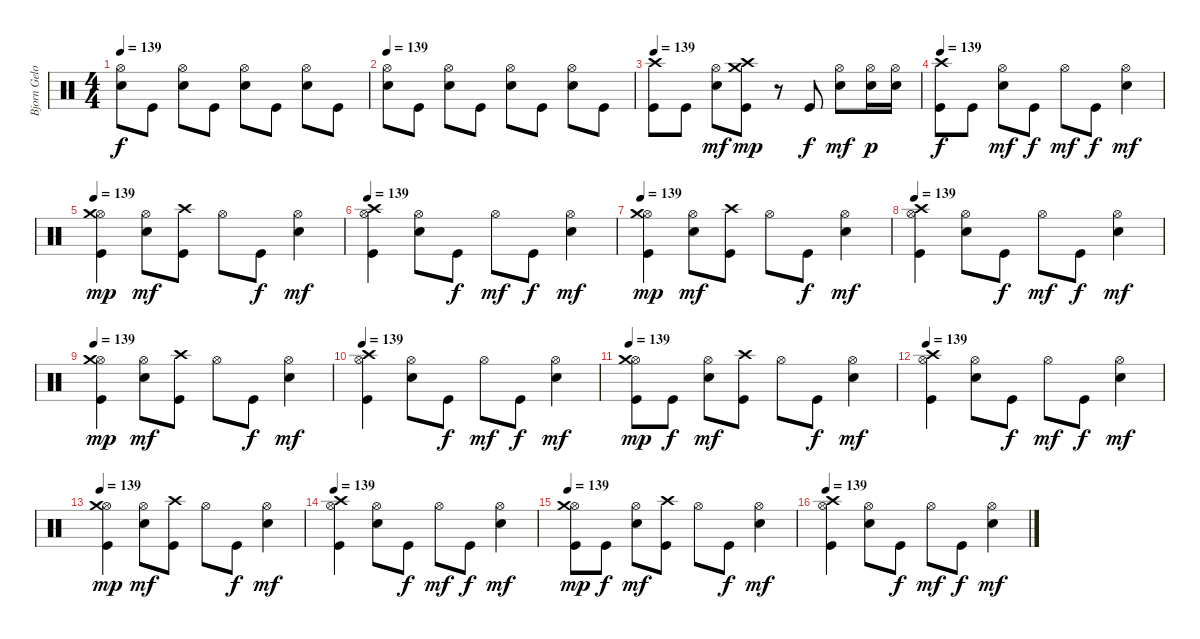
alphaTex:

\track ("Bjorn Gelotte-Drum" "Bjorn Gelo") {instrument percussion}
\staff {score}
\articulation defaults
\ts (4 4)
\tempo 139
\clef neutral
\ks c
("Electric Snare (hit)" "Hi-Hat (open)").8{dy f} "Kick (hit)".8 ("Electric Snare (hit)" "Hi-Hat (open)").8 "Kick (hit)".8 ("Electric Snare (hit)" "Hi-Hat (open)").8 "Kick (hit)".8 ("Electric Snare (hit)" "Hi-Hat (open)").8 "Kick (hit)".8 |
\tempo 139
("Electric Snare (hit)" "Hi-Hat (open)").8 "Kick (hit)".8 ("Electric Snare (hit)" "Hi-Hat (open)").8 "Kick (hit)".8 ("Electric Snare (hit)" "Hi-Hat (open)").8 "Kick (hit)".8 ("Electric Snare (hit)" "Hi-Hat (open)").8 "Kick (hit)".8 |
\tempo 139
("Kick (hit)" "Crash high (hit)").8 "Kick (hit)".8 ("Electric Snare (hit)" "Hi-Hat (open)").8{dy mf} ("Kick (hit)" "Crash high (hit)" "Crash medium (hit)").8{dy mp} r.8 "Kick (hit)".8{dy f} ("Electric Snare (hit)" "Hi-Hat (open)").8{dy mf} ("Electric Snare (hit)" "Hi-Hat (open)").16{dy p} ("Electric Snare (hit)" "Hi-Hat (open)").16 |
\tempo 139
("Kick (hit)" "Crash high (hit)").8{dy f} "Kick (hit)".8 ("Electric Snare (hit)" "Hi-Hat (open)").8{dy mf} "Kick (hit)".8{dy f} "Hi-Hat (open)".8{dy mf} "Kick (hit)".8{dy f} ("Electric Snare (hit)" "Hi-Hat (open)").4{dy mf} |
\tempo 139
("Kick (hit)" "Hi-Hat (open)" "Crash medium (hit)").4{dy mp} ("Electric Snare (hit)" "Hi-Hat (open)").8{dy mf} ("Kick (hit)" "Crash high (hit)").8 "Hi-Hat (open)".8 "Kick (hit)".8{dy f} ("Electric Snare (hit)" "Hi-Hat (open)").4{dy mf} |
\tempo 139
("Kick (hit)" "Hi-Hat (open)" "Crash high (hit)").4 ("Electric Snare (hit)" "Hi-Hat (open)").8 "Kick (hit)".8{dy f} "Hi-Hat (open)".8{dy mf} "Kick (hit)".8{dy f} ("Electric Snare (hit)" "Hi-Hat (open)").4{dy mf} |
\tempo 139
("Kick (hit)" "Hi-Hat (open)" "Crash medium (hit)").4{dy mp} ("Electric Snare (hit)" "Hi-Hat (open)").8{dy mf} ("Kick (hit)" "Crash high (hit)").8 "Hi-Hat (open)".8 "Kick (hit)".8{dy f} ("Electric Snare (hit)" "Hi-Hat (open)").4{dy mf} |
\tempo 139
("Kick (hit)" "Hi-Hat (open)" "Crash high (hit)").4 ("Electric Snare (hit)" "Hi-Hat (open)").8 "Kick (hit)".8{dy f} "Hi-Hat (open)".8{dy mf} "Kick (hit)".8{dy f} ("Electric Snare (hit)" "Hi-Hat (open)").4{dy mf} |
\tempo 139
("Kick (hit)" "Hi-Hat (open)" "Crash medium (hit)").4{dy mp} ("Electric Snare (hit)" "Hi-Hat (open)").8{dy mf} ("Kick (hit)" "Crash high (hit)").8 "Hi-Hat (open)".8 "Kick (hit)".8{dy f} ("Electric Snare (hit)" "Hi-Hat (open)").4{dy mf} |
\tempo 139
("Kick (hit)" "Hi-Hat (open)" "Crash high (hit)").4 ("Electric Snare (hit)" "Hi-Hat (open)").8 "Kick (hit)".8{dy f} "Hi-Hat (open)".8{dy mf} "Kick (hit)".8{dy f} ("Electric Snare (hit)" "Hi-Hat (open)").4{dy mf} |
\tempo 139
("Kick (hit)" "Hi-Hat (open)" "Crash medium (hit)").8{dy mp} "Kick (hit)".8{dy f} ("Electric Snare (hit)" "Hi-Hat (open)").8{dy mf} ("Kick (hit)" "Crash high (hit)").8 "Hi-Hat (open)".8 "Kick (hit)".8{dy f} ("Electric Snare (hit)" "Hi-Hat (open)").4{dy mf} |
\tempo 139
("Kick (hit)" "Hi-Hat (open)" "Crash high (hit)").4 ("Electric Snare (hit)" "Hi-Hat (open)").8 "Kick (hit)".8{dy f} "Hi-Hat (open)".8{dy mf} "Kick (hit)".8{dy f} ("Electric Snare (hit)" "Hi-Hat (open)").4{dy mf} |
\tempo 139
("Kick (hit)" "Hi-Hat (open)" "Crash medium (hit)").4{dy mp} ("Electric Snare (hit)" "Hi-Hat (open)").8{dy mf} ("Kick (hit)" "Crash high (hit)").8 "Hi-Hat (open)".8 "Kick (hit)".8{dy f} ("Electric Snare (hit)" "Hi-Hat (open)").4{dy mf} |
\tempo 139
("Kick (hit)" "Hi-Hat (open)" "Crash high (hit)").4 ("Electric Snare (hit)" "Hi-Hat (open)").8 "Kick (hit)".8{dy f} "Hi-Hat (open)".8{dy mf} "Kick (hit)".8{dy f} ("Electric Snare (hit)" "Hi-Hat (open)").4{dy mf} |
\tempo 139
("Kick (hit)" "Hi-Hat (open)" "Crash medium (hit)").8{dy mp} "Kick (hit)".8{dy f} ("Electric Snare (hit)" "Hi-Hat (open)").8{dy mf} ("Kick (hit)" "Crash high (hit)").8 "Hi-Hat (open)".8 "Kick (hit)".8{dy f} ("Electric Snare (hit)" "Hi-Hat (open)").4{dy mf} |
\tempo 139
("Kick (hit)" "Hi-Hat (open)" "Crash high (hit)").4 ("Electric Snare (hit)" "Hi-Hat (open)").8 "Kick (hit)".8{dy f} "Hi-Hat (open)".8{dy mf} "Kick (hit)".8{dy f} ("Electric Snare (hit)" "Hi-Hat (open)").4{dy mf}
